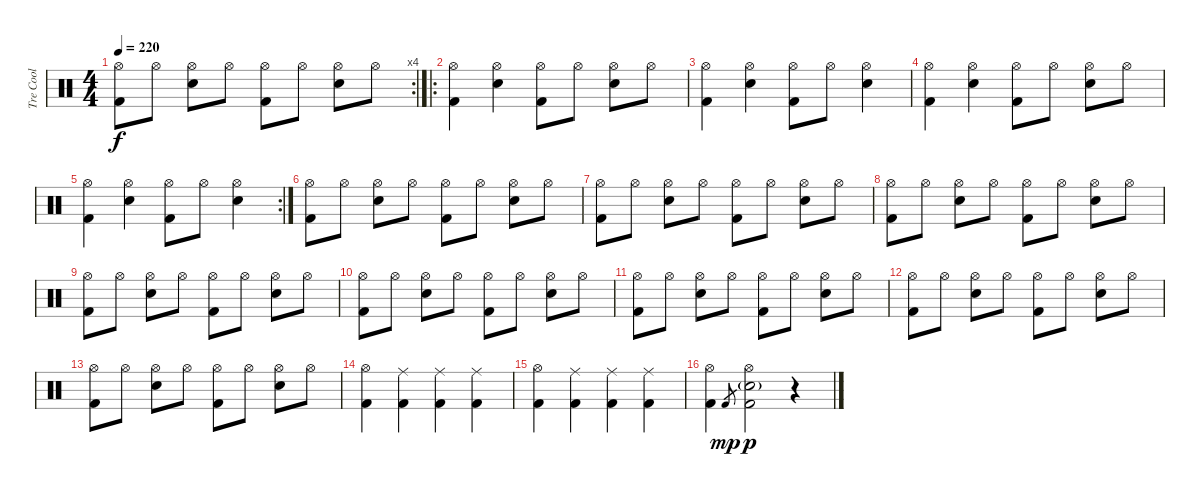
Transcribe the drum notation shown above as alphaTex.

\track ("Tre Cool" "Tre Cool") {instrument percussion}
\staff {score}
\articulation defaults
\rc 4
\ts (4 4)
\tempo 220
\clef neutral
\ks c
("Hi-Hat (open)" "Kick (hit) 2").8{dy f} "Hi-Hat (open)".8 ("Hi-Hat (open)" "Snare (hit) 2").8 "Hi-Hat (open)".8 ("Hi-Hat (open)" "Kick (hit) 2").8 "Hi-Hat (open)".8 ("Hi-Hat (open)" "Snare (hit) 2").8 "Hi-Hat (open)".8 |
\ro
("Hi-Hat (open)" "Kick (hit) 2").4 ("Hi-Hat (open)" "Snare (hit) 2").4 ("Hi-Hat (open)" "Kick (hit) 2").8 "Hi-Hat (open)".8 ("Hi-Hat (open)" "Snare (hit) 2").8 "Hi-Hat (open)".8 |
("Hi-Hat (open)" "Kick (hit) 2").4 ("Hi-Hat (open)" "Snare (hit) 2").4 ("Hi-Hat (open)" "Kick (hit) 2").8 "Hi-Hat (open)".8 ("Hi-Hat (open)" "Snare (hit) 2").4 |
("Hi-Hat (open)" "Kick (hit) 2").4 ("Hi-Hat (open)" "Snare (hit) 2").4 ("Hi-Hat (open)" "Kick (hit) 2").8 "Hi-Hat (open)".8 ("Hi-Hat (open)" "Snare (hit) 2").8 "Hi-Hat (open)".8 |
\rc 2
("Hi-Hat (open)" "Kick (hit) 2").4 ("Hi-Hat (open)" "Snare (hit) 2").4 ("Hi-Hat (open)" "Kick (hit) 2").8 "Hi-Hat (open)".8 ("Hi-Hat (open)" "Snare (hit) 2").4 |
("Hi-Hat (open)" "Kick (hit) 2").8 "Hi-Hat (open)".8 ("Hi-Hat (open)" "Snare (hit) 2").8 "Hi-Hat (open)".8 ("Hi-Hat (open)" "Kick (hit) 2").8 "Hi-Hat (open)".8 ("Hi-Hat (open)" "Snare (hit) 2").8 "Hi-Hat (open)".8 |
("Hi-Hat (open)" "Kick (hit) 2").8 "Hi-Hat (open)".8 ("Hi-Hat (open)" "Snare (hit) 2").8 "Hi-Hat (open)".8 ("Hi-Hat (open)" "Kick (hit) 2").8 "Hi-Hat (open)".8 ("Hi-Hat (open)" "Snare (hit) 2").8 "Hi-Hat (open)".8 |
("Hi-Hat (open)" "Kick (hit) 2").8 "Hi-Hat (open)".8 ("Hi-Hat (open)" "Snare (hit) 2").8 "Hi-Hat (open)".8 ("Hi-Hat (open)" "Kick (hit) 2").8 "Hi-Hat (open)".8 ("Hi-Hat (open)" "Snare (hit) 2").8 "Hi-Hat (open)".8 |
("Hi-Hat (open)" "Kick (hit) 2").8 "Hi-Hat (open)".8 ("Hi-Hat (open)" "Snare (hit) 2").8 "Hi-Hat (open)".8 ("Hi-Hat (open)" "Kick (hit) 2").8 "Hi-Hat (open)".8 ("Hi-Hat (open)" "Snare (hit) 2").8 "Hi-Hat (open)".8 |
("Hi-Hat (open)" "Kick (hit) 2").8 "Hi-Hat (open)".8 ("Hi-Hat (open)" "Snare (hit) 2").8 "Hi-Hat (open)".8 ("Hi-Hat (open)" "Kick (hit) 2").8 "Hi-Hat (open)".8 ("Hi-Hat (open)" "Snare (hit) 2").8 "Hi-Hat (open)".8 |
("Hi-Hat (open)" "Kick (hit) 2").8 "Hi-Hat (open)".8 ("Hi-Hat (open)" "Snare (hit) 2").8 "Hi-Hat (open)".8 ("Hi-Hat (open)" "Kick (hit) 2").8 "Hi-Hat (open)".8 ("Hi-Hat (open)" "Snare (hit) 2").8 "Hi-Hat (open)".8 |
("Hi-Hat (open)" "Kick (hit) 2").8 "Hi-Hat (open)".8 ("Hi-Hat (open)" "Snare (hit) 2").8 "Hi-Hat (open)".8 ("Hi-Hat (open)" "Kick (hit) 2").8 "Hi-Hat (open)".8 ("Hi-Hat (open)" "Snare (hit) 2").8 "Hi-Hat (open)".8 |
("Hi-Hat (open)" "Kick (hit) 2").8 "Hi-Hat (open)".8 ("Hi-Hat (open)" "Snare (hit) 2").8 "Hi-Hat (open)".8 ("Hi-Hat (open)" "Kick (hit) 2").8 "Hi-Hat (open)".8 ("Hi-Hat (open)" "Snare (hit) 2").8 "Hi-Hat (open)".8 |
("Hi-Hat (open)" "Kick (hit) 2").4 ("Ride (middle)" "Kick (hit) 2").4 ("Ride (middle)" "Kick (hit) 2").4 ("Ride (middle)" "Kick (hit) 2").4 |
("Hi-Hat (open)" "Kick (hit) 2").4 ("Ride (middle)" "Kick (hit) 2").4 ("Ride (middle)" "Kick (hit) 2").4 ("Ride (middle)" "Kick (hit) 2").4 |
("Hi-Hat (open)" "Kick (hit) 2").4 "Kick (hit) 2".8{gr dy mp} ("Hi-Hat (open)" "Snare (hit) 2"{g} "Kick (hit) 2").2{dy p} r.4
